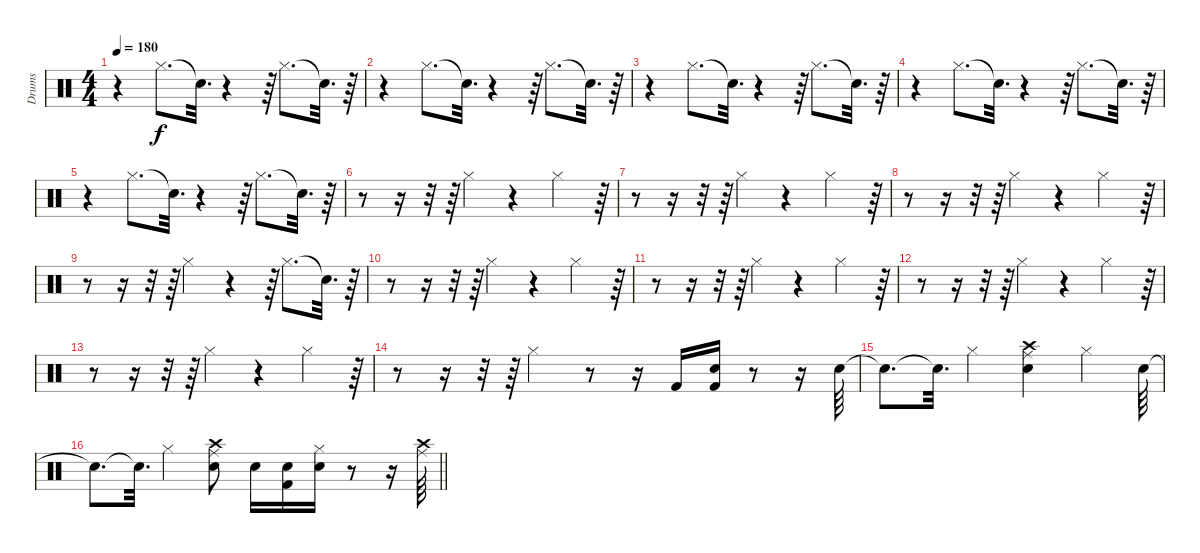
\track ("Drums" "Drums") {instrument percussion}
\staff {score}
\articulation defaults
\ts (4 4)
\tempo 180
\clef neutral
\ks c
r.4{dy f} "Hi-Hat (closed)".8{d} "Snare (hit)"{t}.32{d} r.4 r.64 "Hi-Hat (closed)".8{d} "Snare (hit)"{t}.32{d} r.64 |
r.4 "Hi-Hat (closed)".8{d} "Snare (hit)"{t}.32{d} r.4 r.64 "Hi-Hat (closed)".8{d} "Snare (hit)"{t}.32{d} r.64 |
r.4 "Hi-Hat (closed)".8{d} "Snare (hit)"{t}.32{d} r.4 r.64 "Hi-Hat (closed)".8{d} "Snare (hit)"{t}.32{d} r.64 |
r.4 "Hi-Hat (closed)".8{d} "Snare (hit)"{t}.32{d} r.4 r.64 "Hi-Hat (closed)".8{d} "Snare (hit)"{t}.32{d} r.64 |
r.4 "Hi-Hat (closed)".8{d} "Snare (hit)"{t}.32{d} r.4 r.64 "Hi-Hat (closed)".8{d} "Snare (hit)"{t}.32{d} r.64 |
r.8 r.16 r.32 r.64 "Hi-Hat (closed)".4 r.4 "Hi-Hat (closed)".4 r.64 |
r.8 r.16 r.32 r.64 "Hi-Hat (closed)".4 r.4 "Hi-Hat (closed)".4 r.64 |
r.8 r.16 r.32 r.64 "Hi-Hat (closed)".4 r.4 "Hi-Hat (closed)".4 r.64 |
r.8 r.16 r.32 r.64 "Hi-Hat (closed)".4 r.4 r.64 "Hi-Hat (closed)".8{d} "Snare (hit)"{t}.32{d} r.64 |
r.8 r.16 r.32 r.64 "Hi-Hat (closed)".4 r.4 "Hi-Hat (closed)".4 r.64 |
r.8 r.16 r.32 r.64 "Hi-Hat (closed)".4 r.4 "Hi-Hat (closed)".4 r.64 |
r.8 r.16 r.32 r.64 "Hi-Hat (closed)".4 r.4 "Hi-Hat (closed)".4 r.64 |
r.8 r.16 r.32 r.64 "Hi-Hat (closed)".4 r.4 "Hi-Hat (closed)".4 r.64 |
r.8 r.16 r.32 r.64 "Hi-Hat (closed)".4 r.8 r.16 "Kick (hit) 2".16 ("Snare (hit) 2" "Kick (hit) 2").16 r.8 r.16 "Snare (hit) 2".64 |
"Snare (hit)"{t}.8{d} "Snare (hit)"{t}.32{d} "Hi-Hat (closed)".4 ("Ride (middle)" "Snare (hit) 2" "Crash high (hit)").4 "Hi-Hat (closed)".4 "Snare (hit) 2".64 |
\barLineRight lightlight "Snare (hit)"{t}.8{d} "Snare (hit)"{t}.32{d} "Hi-Hat (closed)".4
("Snare (hit) 2" "Ride (middle)" "Crash high (hit)").8 "Snare (hit) 2".16 ("Snare (hit) 2" "Kick (hit) 2").16 ("Hi-Hat (closed)" "Snare (hit) 2").16 r.8 r.16 ("Ride (middle)" "Crash high (hit)").64
